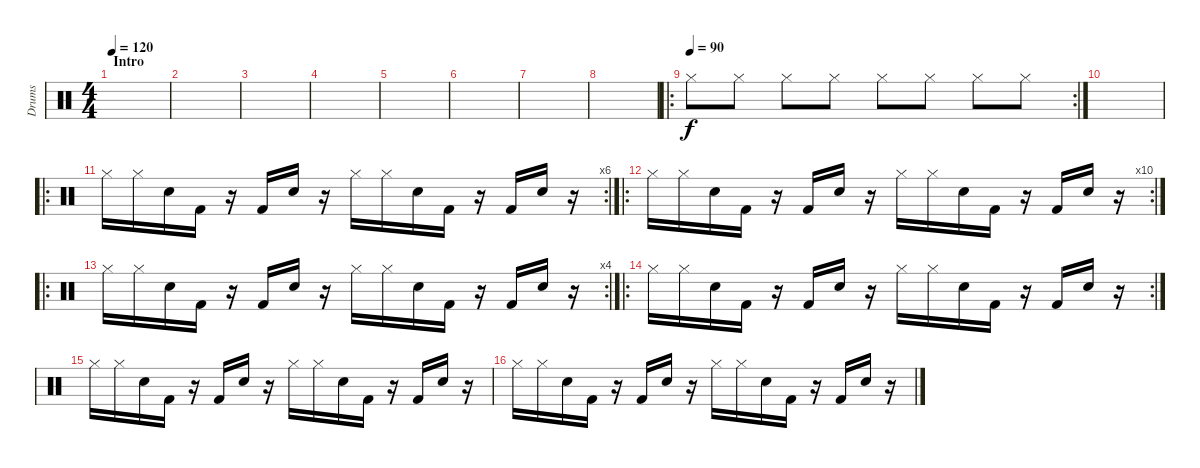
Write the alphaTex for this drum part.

\track ("Drums" "Drums") {instrument percussion}
\staff {score}
\articulation defaults
\ts (4 4)
\section ("" "Intro")
\tempo 120
\clef neutral
\ks c
|
|
|
|
|
|
|
|
\ro
\rc 2
\tempo (90)
"Hi-Hat (closed)".8 "Hi-Hat (closed)".8 "Hi-Hat (closed)".8 "Hi-Hat (closed)".8 "Hi-Hat (closed)".8 "Hi-Hat (closed)".8 "Hi-Hat (closed)".8 "Hi-Hat (closed)".8 |
|
\ro
\rc 6 "Hi-Hat (closed)".16 "Hi-Hat (closed)".16 "Snare (hit) 2".16 "Kick (hit) 2".16
r.16 "Kick (hit) 2".16 "Snare (hit) 2".16 r.16 "Hi-Hat (closed)".16 "Hi-Hat (closed)".16 "Snare (hit) 2".16 "Kick (hit) 2".16 r.16 "Kick (hit) 2".16 "Snare (hit) 2".16 r.16 |
\ro
\rc 10 "Hi-Hat (closed)".16 "Hi-Hat (closed)".16 "Snare (hit) 2".16 "Kick (hit) 2".16
r.16 "Kick (hit) 2".16 "Snare (hit) 2".16 r.16 "Hi-Hat (closed)".16 "Hi-Hat (closed)".16 "Snare (hit) 2".16 "Kick (hit) 2".16 r.16 "Kick (hit) 2".16 "Snare (hit) 2".16 r.16 |
\ro
\rc 4 "Hi-Hat (closed)".16 "Hi-Hat (closed)".16 "Snare (hit) 2".16 "Kick (hit) 2".16
r.16 "Kick (hit) 2".16 "Snare (hit) 2".16 r.16 "Hi-Hat (closed)".16 "Hi-Hat (closed)".16 "Snare (hit) 2".16 "Kick (hit) 2".16 r.16 "Kick (hit) 2".16 "Snare (hit) 2".16 r.16 |
\ro
\rc 2 "Hi-Hat (closed)".16 "Hi-Hat (closed)".16 "Snare (hit) 2".16 "Kick (hit) 2".16
r.16 "Kick (hit) 2".16 "Snare (hit) 2".16 r.16 "Hi-Hat (closed)".16 "Hi-Hat (closed)".16 "Snare (hit) 2".16 "Kick (hit) 2".16 r.16 "Kick (hit) 2".16 "Snare (hit) 2".16 r.16 |
"Hi-Hat (closed)".16 "Hi-Hat (closed)".16 "Snare (hit) 2".16 "Kick (hit) 2".16 r.16 "Kick (hit) 2".16 "Snare (hit) 2".16 r.16 "Hi-Hat (closed)".16 "Hi-Hat (closed)".16 "Snare (hit) 2".16 "Kick (hit) 2".16 r.16 "Kick (hit) 2".16 "Snare (hit) 2".16 r.16 |
"Hi-Hat (closed)".16 "Hi-Hat (closed)".16 "Snare (hit) 2".16 "Kick (hit) 2".16 r.16 "Kick (hit) 2".16 "Snare (hit) 2".16 r.16 "Hi-Hat (closed)".16 "Hi-Hat (closed)".16 "Snare (hit) 2".16 "Kick (hit) 2".16 r.16 "Kick (hit) 2".16 "Snare (hit) 2".16 r.16
